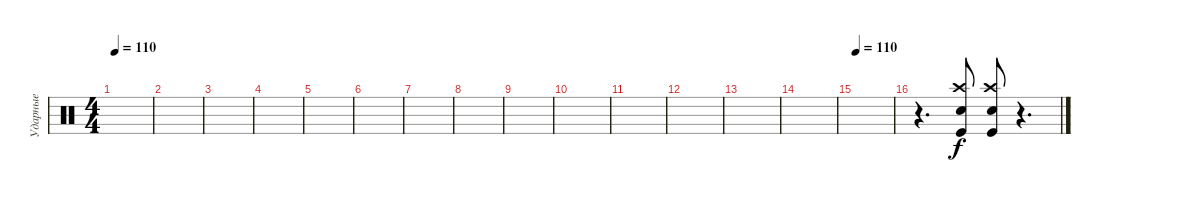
\track ("Ударные" "Ударные") {instrument percussion}
\staff {score}
\articulation defaults
\ts (4 4)
\tempo 110
\tempo 140
\tempo 110
\clef neutral
\ks c
|
|
|
|
|
|
|
|
|
|
|
|
|
|
\tempo 104
\tempo 120
\tempo 110
|
r.4{d} ("Electric Snare (hit)" "Crash high (hit)" "Kick (hit)").8 ("Crash high (hit)" "Electric Snare (hit)" "Kick (hit)").8 r.4{d}
